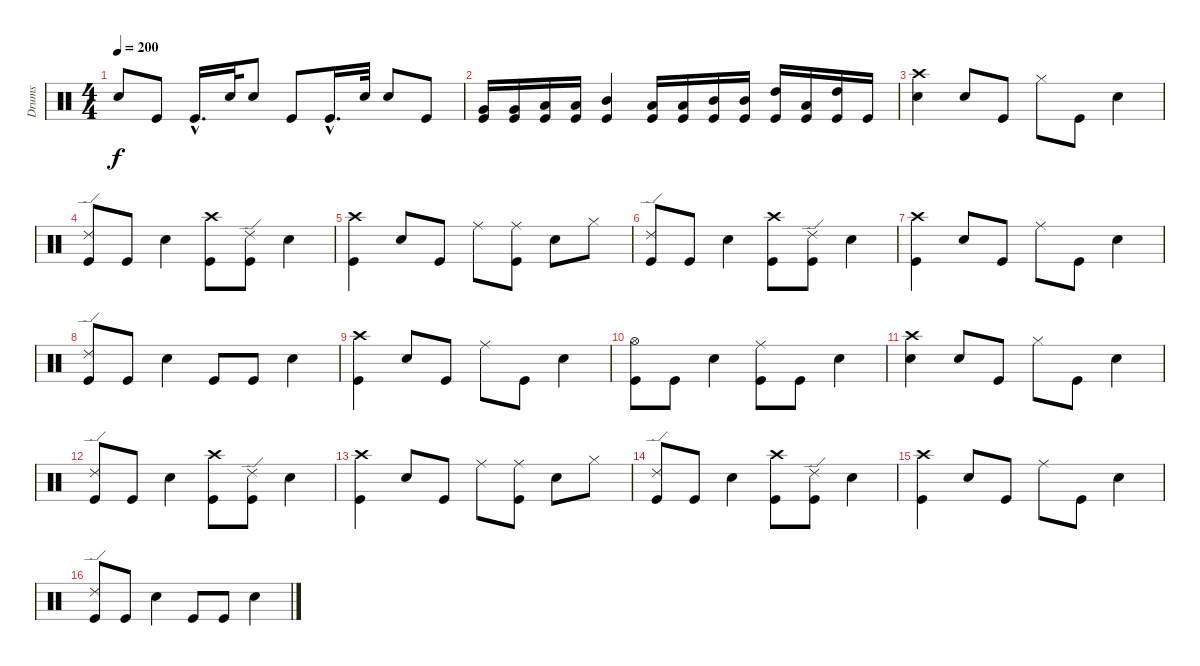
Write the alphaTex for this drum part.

\track ("Drums" "Drums") {instrument percussion}
\staff {score}
\articulation defaults
\ts (4 4)
\tempo 200
\clef neutral
\ks c "Snare (hit) 2".8{dy f} "Kick (hit)".8 "Kick (hit)"{hac}.16{d} "Snare (hit) 2".32 "Snare (hit) 2".8 "Kick (hit)".8 "Kick (hit)"{hac}.16{d} "Snare (hit) 2".32 "Snare (hit) 2".8 "Kick (hit)".8
|
("Very Low Tom (hit)" "Kick (hit)").16 ("Very Low Tom (hit)" "Kick (hit)").16 ("Low Tom (hit)" "Kick (hit)").16 ("Low Tom (hit)" "Kick (hit)").16 ("Mid Tom (hit)" "Kick (hit)").4 ("Low Tom (hit)" "Kick (hit)").16 ("Low Tom (hit)" "Kick (hit)").16 ("Mid Tom (hit)" "Kick (hit)").16 ("Mid Tom (hit)" "Kick (hit)").16 ("High Tom (hit)" "Kick (hit)").16 ("Low Tom (hit)" "Kick (hit)").16 ("High Tom (hit)" "Kick (hit)").16 "Kick (hit)".16 |
("Crash high (hit)" "Snare (hit) 2").4 "Snare (hit) 2".8 "Kick (hit)".8 "Hi-Hat (closed)".8 "Kick (hit)".8 "Snare (hit) 2".4 |
("Ride (edge) 2" "Kick (hit)").8 "Kick (hit)".8 "Snare (hit) 2".4 ("Crash high (hit)" "Kick (hit)").8 ("Ride (edge) 2" "Kick (hit)").8 "Snare (hit) 2".4 |
("Crash high (hit)" "Kick (hit)").4 "Snare (hit) 2".8 "Kick (hit)".8 "Ride (middle)".8 ("Ride (middle)" "Kick (hit)").8 "Snare (hit) 2".8 "Hi-Hat (closed)".8 |
("Ride (edge) 2" "Kick (hit)").8 "Kick (hit)".8 "Snare (hit) 2".4 ("Crash high (hit)" "Kick (hit)").8 ("Ride (edge) 2" "Kick (hit)").8 "Snare (hit) 2".4 |
("Crash high (hit)" "Kick (hit)").4 "Snare (hit) 2".8 "Kick (hit)".8 "Ride (middle)".8 "Kick (hit)".8 "Snare (hit) 2".4 |
("Ride (edge) 2" "Kick (hit)").8 "Kick (hit)".8 "Snare (hit) 2".4 "Kick (hit)".8 "Kick (hit)".8 "Snare (hit) 2".4 |
("Crash high (hit)" "Kick (hit)").4 "Snare (hit) 2".8 "Kick (hit)".8 "Ride (middle)".8 "Kick (hit)".8 "Snare (hit) 2".4 |
("Hi-Hat (open)" "Kick (hit)").8 "Kick (hit)".8 "Snare (hit) 2".4 ("Ride (middle)" "Kick (hit)").8 "Kick (hit)".8 "Snare (hit) 2".4 |
("Crash high (hit)" "Snare (hit) 2").4 "Snare (hit) 2".8 "Kick (hit)".8 "Hi-Hat (closed)".8 "Kick (hit)".8 "Snare (hit) 2".4 |
("Ride (edge) 2" "Kick (hit)").8 "Kick (hit)".8 "Snare (hit) 2".4 ("Crash high (hit)" "Kick (hit)").8 ("Ride (edge) 2" "Kick (hit)").8 "Snare (hit) 2".4 |
("Crash high (hit)" "Kick (hit)").4 "Snare (hit) 2".8 "Kick (hit)".8 "Ride (middle)".8 ("Ride (middle)" "Kick (hit)").8 "Snare (hit) 2".8 "Hi-Hat (closed)".8 |
("Ride (edge) 2" "Kick (hit)").8 "Kick (hit)".8 "Snare (hit) 2".4 ("Crash high (hit)" "Kick (hit)").8 ("Ride (edge) 2" "Kick (hit)").8 "Snare (hit) 2".4 |
("Crash high (hit)" "Kick (hit)").4 "Snare (hit) 2".8 "Kick (hit)".8 "Ride (middle)".8 "Kick (hit)".8 "Snare (hit) 2".4 |
("Ride (edge) 2" "Kick (hit)").8 "Kick (hit)".8 "Snare (hit) 2".4 "Kick (hit)".8 "Kick (hit)".8 "Snare (hit) 2".4
